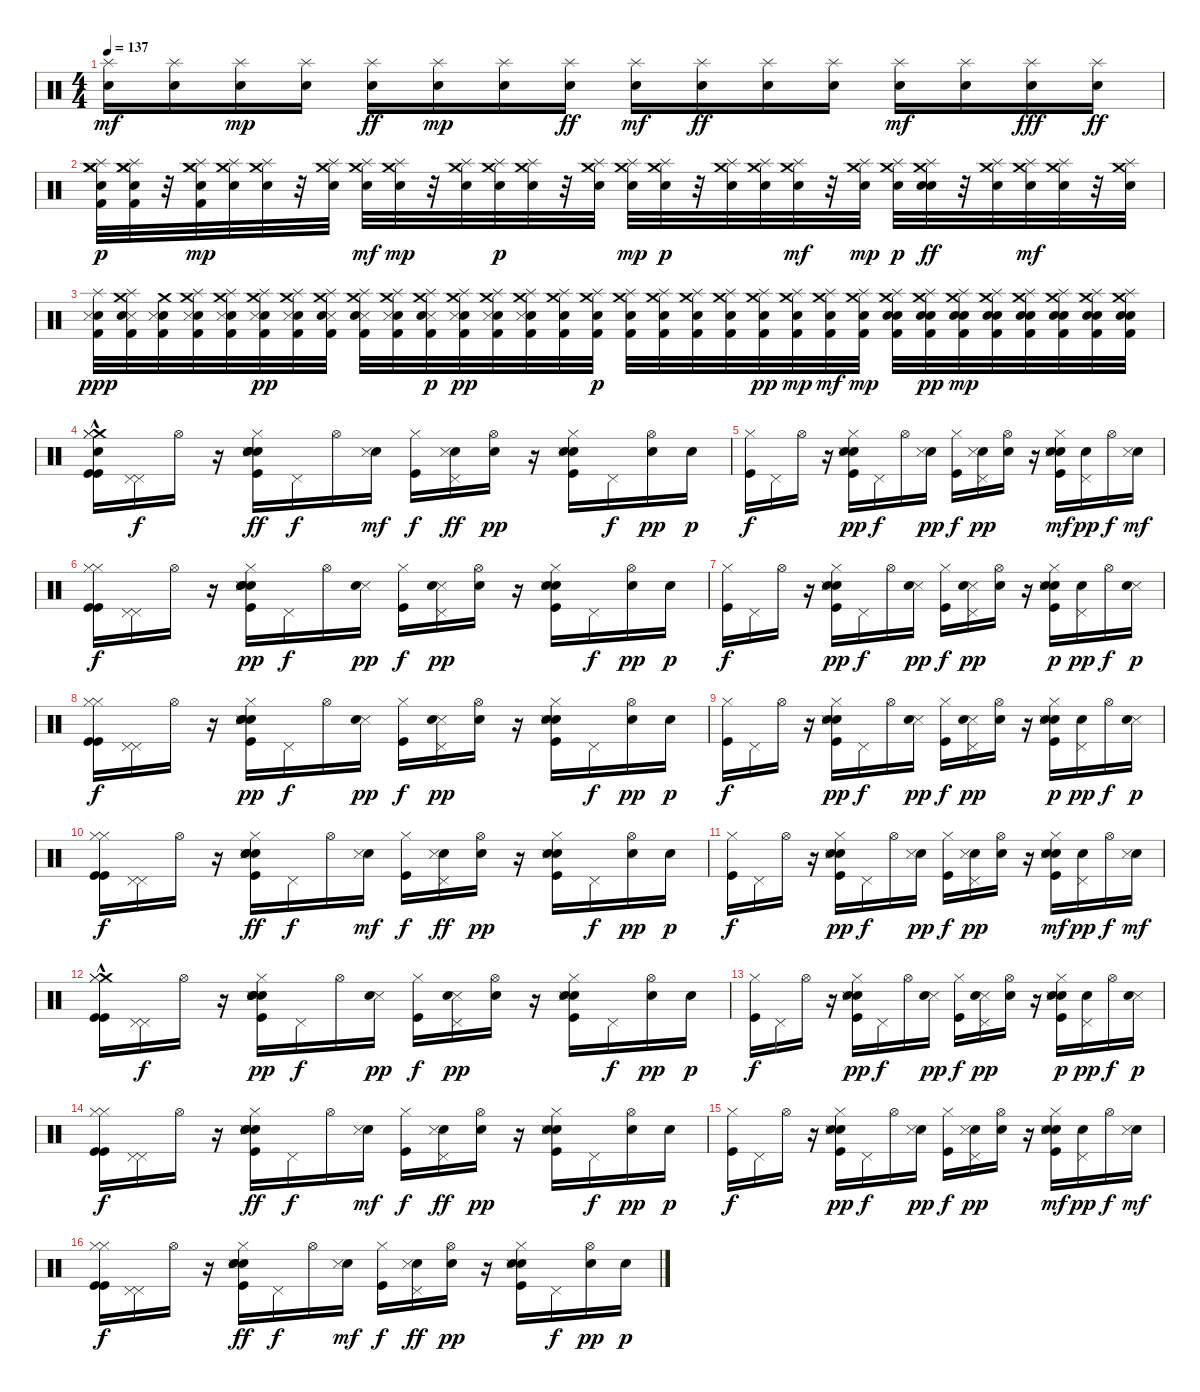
\track "" {instrument percussion}
\staff {score}
\articulation defaults
\ts (4 4)
\tempo 137
\clef neutral
\ks c
("Splash (hit)" "Snare (hit) 2").16{dy mf} ("Splash (hit)" "Snare (hit) 2").16 ("Splash (hit)" "Snare (hit) 2").16{dy mp} ("Snare (hit) 2" "Splash (hit)").16 ("Splash (hit)" "Snare (hit) 2").16{dy ff} ("Snare (hit) 2" "Splash (hit)").16{dy mp} ("Snare (hit) 2" "Splash (hit)").16 ("Splash (hit)" "Snare (hit) 2").16{dy ff} ("Splash (hit)" "Snare (hit) 2").16{dy mf} ("Splash (hit)" "Snare (hit) 2").16{dy ff} ("Splash (hit)" "Snare (hit) 2").16 ("Splash (hit)" "Snare (hit) 2").16 ("Snare (hit) 2" "Splash (hit)").16{dy mf} ("Snare (hit) 2" "Splash (hit)").16 ("Snare (hit) 2" "Splash (hit)").16{dy fff} ("Snare (hit) 2" "Splash (hit)").16{dy ff} |
("Kick (hit) 2" "Crash medium (hit)" "Snare (hit) 2" "Crash medium (hit)" "Splash (hit)").32{dy p} ("Crash medium (hit)" "Kick (hit) 2" "Crash medium (hit)" "Snare (hit) 2" "Splash (hit)").32 r.32 ("Kick (hit) 2" "Crash medium (hit)" "Snare (hit) 2" "Crash medium (hit)" "Splash (hit)").32{dy mp} ("Snare (hit) 2" "Crash medium (hit)" "Splash (hit)").32 ("Snare (hit) 2" "Crash medium (hit)" "Splash (hit)").32 r.32 ("Snare (hit) 2" "Crash medium (hit)" "Splash (hit)").32 ("Snare (hit) 2" "Crash medium (hit)" "Splash (hit)").32{dy mf} ("Snare (hit) 2" "Splash (hit)" "Crash medium (hit)").32{dy mp} r.32 ("Snare (hit) 2" "Splash (hit)" "Crash medium (hit)").32 ("Snare (hit) 2" "Splash (hit)" "Crash medium (hit)").32{dy p} ("Snare (hit) 2" "Splash (hit)" "Crash medium (hit)").32 r.32 ("Snare (hit) 2" "Splash (hit)" "Crash medium (hit)").32 ("Snare (hit) 2" "Splash (hit)" "Crash medium (hit)").32{dy mp} ("Snare (hit) 2" "Crash medium (hit)" "Splash (hit)").32{dy p} r.32 ("Snare (hit) 2" "Crash medium (hit)" "Splash (hit)").32 ("Snare (hit) 2" "Splash (hit)" "Crash medium (hit)").32 ("Snare (hit) 2" "Crash medium (hit)" "Splash (hit)").32{dy mf} r.32 ("Snare (hit) 2" "Splash (hit)" "Crash medium (hit)").32{dy mp} ("Snare (hit) 2" "Crash medium (hit)" "Splash (hit)").32{dy p} ("Crash medium (hit)" "Splash (hit)" "Snare (hit) 2" "Electric Snare (hit)").32{dy ff} r.32 ("Splash (hit)" "Crash medium (hit)" "Snare (hit) 2").32 ("Splash (hit)" "Snare (hit) 2" "Crash medium (hit)").32{dy mf} ("Snare (hit) 2" "Splash (hit)" "Crash medium (hit)").32 r.32 ("Snare (hit) 2" "Crash medium (hit)" "Splash (hit)").32 |
("Kick (hit) 2" "Snare (hit) 2" "Snare (side stick) 3" "Splash (hit)").32{dy ppp} ("Snare (side stick) 3" "Snare (hit) 2" "Kick (hit) 2" "Splash (hit)" "Crash medium (hit)").32 ("Snare (hit) 2" "Kick (hit) 2" "Snare (side stick) 3" "Crash medium (hit)").32 ("Snare (hit) 2" "Crash medium (hit)" "Kick (hit) 2" "Splash (hit)" "Snare (side stick) 3").32 ("Crash medium (hit)" "Splash (hit)" "Snare (hit) 2" "Kick (hit) 2" "Snare (side stick) 3").32 ("Crash medium (hit)" "Splash (hit)" "Snare (hit) 2" "Snare (side stick) 3" "Kick (hit) 2").32{dy pp} ("Crash medium (hit)" "Kick (hit) 2" "Snare (hit) 2" "Splash (hit)" "Snare (side stick) 3").32 ("Crash medium (hit)" "Snare (side stick) 3" "Kick (hit) 2" "Snare (hit) 2" "Splash (hit)").32 ("Crash medium (hit)" "Snare (side stick) 3" "Splash (hit)" "Snare (hit) 2" "Kick (hit) 2").32 ("Crash medium (hit)" "Splash (hit)" "Snare (hit) 2" "Snare (side stick) 3" "Kick (hit) 2").32 ("Snare (side stick) 3" "Crash medium (hit)" "Splash (hit)" "Kick (hit) 2" "Snare (hit) 2").32{dy p} ("Snare (hit) 2" "Snare (side stick) 3" "Kick (hit) 2" "Splash (hit)" "Crash medium (hit)").32{dy pp} ("Splash (hit)" "Snare (hit) 2" "Kick (hit) 2" "Snare (side stick) 3" "Crash medium (hit)").32 ("Snare (hit) 2" "Kick (hit) 2" "Snare (side stick) 3" "Splash (hit)" "Crash medium (hit)").32 ("Kick (hit) 2" "Snare (hit) 2" "Splash (hit)" "Crash medium (hit)").32 ("Snare (hit) 2" "Kick (hit) 2" "Splash (hit)" "Crash medium (hit)").32{dy p} ("Snare (hit) 2" "Kick (hit) 2" "Splash (hit)" "Crash medium (hit)").32 ("Snare (hit) 2" "Kick (hit) 2" "Splash (hit)" "Crash medium (hit)").32 ("Snare (hit) 2" "Kick (hit) 2" "Crash medium (hit)" "Splash (hit)").32 ("Snare (hit) 2" "Kick (hit) 2" "Splash (hit)" "Crash medium (hit)").32 ("Splash (hit)" "Snare (hit) 2" "Kick (hit) 2" "Crash medium (hit)").32{dy pp} ("Crash medium (hit)" "Splash (hit)" "Snare (hit) 2" "Kick (hit) 2").32{dy mp} ("Snare (hit) 2" "Splash (hit)" "Crash medium (hit)" "Kick (hit) 2").32{dy mf} ("Snare (hit) 2" "Kick (hit) 2" "Splash (hit)" "Crash medium (hit)").32{dy mp} ("Snare (hit) 2" "Kick (hit) 2" "Electric Snare (hit)" "Splash (hit)" "Crash medium (hit)").32 ("Snare (hit) 2" "Electric Snare (hit)" "Kick (hit) 2" "Splash (hit)" "Crash medium (hit)").32{dy pp} ("Splash (hit)" "Electric Snare (hit)" "Snare (hit) 2" "Crash medium (hit)" "Kick (hit) 2").32{dy mp} ("Electric Snare (hit)" "Snare (hit) 2" "Kick (hit) 2" "Splash (hit)" "Crash medium (hit)").32 ("Electric Snare (hit)" "Snare (hit) 2" "Kick (hit) 2" "Crash medium (hit)" "Splash (hit)").32 ("Electric Snare (hit)" "Snare (hit) 2" "Kick (hit) 2" "Splash (hit)" "Crash medium (hit)").32 ("Electric Snare (hit)" "Snare (hit) 2" "Kick (hit) 2" "Splash (hit)" "Crash medium (hit)").32 ("Electric Snare (hit)" "Snare (hit) 2" "Kick (hit) 2" "Splash (hit)" "Crash medium (hit)").32 |
("Electric Snare (hit)" "Crash medium (hit)"{hac} "Hi-Hat (closed)" "Kick (hit)" "Kick (hit)" "Hi-Hat (closed)").16{volume 13} ("Pedal Hi-Hat (hit)" "Pedal Hi-Hat (hit)").16{dy f} "Hi-Hat (open)".16 r.16 ("Hand Clap (hit)" "Kick (hit)" "Hi-Hat (closed)" "Metronome (bell)" "Metronome (bell)" "Snare (side stick) 3").16{dy ff} "Pedal Hi-Hat (hit)".16{dy f} "Hi-Hat (open)".16 ("Metronome (bell)" "Snare (side stick) 3").16{dy mf} ("Kick (hit)" "Hi-Hat (closed)").16{dy f} ("Pedal Hi-Hat (hit)" "Metronome (bell)" "Snare (side stick) 3").16{dy ff} ("Hi-Hat (open)" "Metronome (bell)").16{dy pp} r.16 ("Hand Clap (hit)" "Hi-Hat (closed)" "Kick (hit)" "Metronome (bell)" "Snare (side stick) 3").16 "Pedal Hi-Hat (hit)".16{dy f} ("Hi-Hat (open)" "Metronome (bell)").16{dy pp} "Metronome (bell)".16{dy p} |
("Hi-Hat (closed)" "Kick (hit)").16{dy f} "Pedal Hi-Hat (hit)".16 "Hi-Hat (open)".16 r.16 ("Hand Clap (hit)" "Kick (hit)" "Hi-Hat (closed)" "Metronome (bell)" "Snare (side stick) 3").16{dy pp} "Pedal Hi-Hat (hit)".16{dy f} "Hi-Hat (open)".16 ("Metronome (bell)" "Snare (side stick) 3").16{dy pp} ("Kick (hit)" "Hi-Hat (closed)").16{dy f} ("Pedal Hi-Hat (hit)" "Metronome (bell)" "Snare (side stick) 3").16{dy pp} ("Hi-Hat (open)" "Metronome (bell)").16 r.16 ("Hand Clap (hit)" "Hi-Hat (closed)" "Kick (hit)" "Metronome (bell)" "Snare (side stick) 3").16{dy mf} ("Pedal Hi-Hat (hit)" "Metronome (bell)").16{dy pp} "Hi-Hat (open)".16{dy f} ("Metronome (bell)" "Snare (side stick) 3").16{dy mf} |
("Hi-Hat (closed)" "Kick (hit)" "Kick (hit)" "Hi-Hat (closed)").16{dy f volume 13} ("Pedal Hi-Hat (hit)" "Pedal Hi-Hat (hit)").16 "Hi-Hat (open)".16 r.16 ("Hand Clap (hit)" "Kick (hit)" "Hi-Hat (closed)" "Snare (side stick) 3" "Metronome (bell)" "Metronome (bell)").16{dy pp} "Pedal Hi-Hat (hit)".16{dy f} "Hi-Hat (open)".16 ("Snare (side stick) 3" "Metronome (bell)").16{dy pp} ("Kick (hit)" "Hi-Hat (closed)").16{dy f} ("Pedal Hi-Hat (hit)" "Snare (side stick) 3" "Metronome (bell)").16{dy pp} ("Hi-Hat (open)" "Metronome (bell)").16 r.16 ("Hand Clap (hit)" "Hi-Hat (closed)" "Kick (hit)" "Snare (side stick) 3" "Metronome (bell)").16 "Pedal Hi-Hat (hit)".16{dy f} ("Hi-Hat (open)" "Metronome (bell)").16{dy pp} "Metronome (bell)".16{dy p} |
("Hi-Hat (closed)" "Kick (hit)").16{dy f} "Pedal Hi-Hat (hit)".16 "Hi-Hat (open)".16 r.16 ("Hand Clap (hit)" "Kick (hit)" "Hi-Hat (closed)" "Snare (side stick) 3" "Metronome (bell)").16{dy pp} "Pedal Hi-Hat (hit)".16{dy f} "Hi-Hat (open)".16 ("Snare (side stick) 3" "Metronome (bell)").16{dy pp} ("Kick (hit)" "Hi-Hat (closed)").16{dy f} ("Pedal Hi-Hat (hit)" "Snare (side stick) 3" "Metronome (bell)").16{dy pp} ("Hi-Hat (open)" "Metronome (bell)").16 r.16 ("Hand Clap (hit)" "Hi-Hat (closed)" "Kick (hit)" "Snare (side stick) 3" "Metronome (bell)").16{dy p} ("Pedal Hi-Hat (hit)" "Metronome (bell)").16{dy pp} "Hi-Hat (open)".16{dy f} ("Snare (side stick) 3" "Metronome (bell)").16{dy p} |
("Hi-Hat (closed)" "Kick (hit)" "Kick (hit)" "Hi-Hat (closed)").16{dy f volume 13} ("Pedal Hi-Hat (hit)" "Pedal Hi-Hat (hit)").16 "Hi-Hat (open)".16 r.16 ("Hand Clap (hit)" "Kick (hit)" "Hi-Hat (closed)" "Snare (side stick) 3" "Metronome (bell)" "Metronome (bell)").16{dy pp} "Pedal Hi-Hat (hit)".16{dy f} "Hi-Hat (open)".16 ("Snare (side stick) 3" "Metronome (bell)").16{dy pp} ("Kick (hit)" "Hi-Hat (closed)").16{dy f} ("Pedal Hi-Hat (hit)" "Snare (side stick) 3" "Metronome (bell)").16{dy pp} ("Hi-Hat (open)" "Metronome (bell)").16 r.16 ("Hand Clap (hit)" "Hi-Hat (closed)" "Kick (hit)" "Snare (side stick) 3" "Metronome (bell)").16 "Pedal Hi-Hat (hit)".16{dy f} ("Hi-Hat (open)" "Metronome (bell)").16{dy pp} "Metronome (bell)".16{dy p} |
("Hi-Hat (closed)" "Kick (hit)").16{dy f} "Pedal Hi-Hat (hit)".16 "Hi-Hat (open)".16 r.16 ("Hand Clap (hit)" "Kick (hit)" "Hi-Hat (closed)" "Snare (side stick) 3" "Metronome (bell)").16{dy pp} "Pedal Hi-Hat (hit)".16{dy f} "Hi-Hat (open)".16 ("Snare (side stick) 3" "Metronome (bell)").16{dy pp} ("Kick (hit)" "Hi-Hat (closed)").16{dy f} ("Pedal Hi-Hat (hit)" "Snare (side stick) 3" "Metronome (bell)").16{dy pp} ("Hi-Hat (open)" "Metronome (bell)").16 r.16 ("Hand Clap (hit)" "Hi-Hat (closed)" "Kick (hit)" "Snare (side stick) 3" "Metronome (bell)").16{dy p} ("Pedal Hi-Hat (hit)" "Metronome (bell)").16{dy pp} "Hi-Hat (open)".16{dy f} ("Snare (side stick) 3" "Metronome (bell)").16{dy p} |
("Hi-Hat (closed)" "Kick (hit)" "Kick (hit)" "Hi-Hat (closed)").16{dy f volume 13} ("Pedal Hi-Hat (hit)" "Pedal Hi-Hat (hit)").16 "Hi-Hat (open)".16 r.16 ("Hand Clap (hit)" "Kick (hit)" "Hi-Hat (closed)" "Metronome (bell)" "Metronome (bell)" "Snare (side stick) 3").16{dy ff} "Pedal Hi-Hat (hit)".16{dy f} "Hi-Hat (open)".16 ("Metronome (bell)" "Snare (side stick) 3").16{dy mf} ("Kick (hit)" "Hi-Hat (closed)").16{dy f} ("Pedal Hi-Hat (hit)" "Metronome (bell)" "Snare (side stick) 3").16{dy ff} ("Hi-Hat (open)" "Metronome (bell)").16{dy pp} r.16 ("Hand Clap (hit)" "Hi-Hat (closed)" "Kick (hit)" "Metronome (bell)" "Snare (side stick) 3").16 "Pedal Hi-Hat (hit)".16{dy f} ("Hi-Hat (open)" "Metronome (bell)").16{dy pp} "Metronome (bell)".16{dy p} |
("Hi-Hat (closed)" "Kick (hit)").16{dy f} "Pedal Hi-Hat (hit)".16 "Hi-Hat (open)".16 r.16 ("Hand Clap (hit)" "Kick (hit)" "Hi-Hat (closed)" "Metronome (bell)" "Snare (side stick) 3").16{dy pp} "Pedal Hi-Hat (hit)".16{dy f} "Hi-Hat (open)".16 ("Metronome (bell)" "Snare (side stick) 3").16{dy pp} ("Kick (hit)" "Hi-Hat (closed)").16{dy f} ("Pedal Hi-Hat (hit)" "Metronome (bell)" "Snare (side stick) 3").16{dy pp} ("Hi-Hat (open)" "Metronome (bell)").16 r.16 ("Hand Clap (hit)" "Hi-Hat (closed)" "Kick (hit)" "Metronome (bell)" "Snare (side stick) 3").16{dy mf} ("Pedal Hi-Hat (hit)" "Metronome (bell)").16{dy pp} "Hi-Hat (open)".16{dy f} ("Metronome (bell)" "Snare (side stick) 3").16{dy mf} |
("Crash medium (hit)"{hac} "Hi-Hat (closed)" "Kick (hit)" "Kick (hit)" "Hi-Hat (closed)").16{volume 13} ("Pedal Hi-Hat (hit)" "Pedal Hi-Hat (hit)").16{dy f} "Hi-Hat (open)".16 r.16 ("Hand Clap (hit)" "Kick (hit)" "Hi-Hat (closed)" "Snare (side stick) 3" "Metronome (bell)" "Metronome (bell)").16{dy pp} "Pedal Hi-Hat (hit)".16{dy f} "Hi-Hat (open)".16 ("Snare (side stick) 3" "Metronome (bell)").16{dy pp} ("Kick (hit)" "Hi-Hat (closed)").16{dy f} ("Pedal Hi-Hat (hit)" "Snare (side stick) 3" "Metronome (bell)").16{dy pp} ("Hi-Hat (open)" "Metronome (bell)").16 r.16 ("Hand Clap (hit)" "Hi-Hat (closed)" "Kick (hit)" "Snare (side stick) 3" "Metronome (bell)").16 "Pedal Hi-Hat (hit)".16{dy f} ("Hi-Hat (open)" "Metronome (bell)").16{dy pp} "Metronome (bell)".16{dy p} |
("Hi-Hat (closed)" "Kick (hit)").16{dy f} "Pedal Hi-Hat (hit)".16 "Hi-Hat (open)".16 r.16 ("Hand Clap (hit)" "Kick (hit)" "Hi-Hat (closed)" "Snare (side stick) 3" "Metronome (bell)").16{dy pp} "Pedal Hi-Hat (hit)".16{dy f} "Hi-Hat (open)".16 ("Snare (side stick) 3" "Metronome (bell)").16{dy pp} ("Kick (hit)" "Hi-Hat (closed)").16{dy f} ("Pedal Hi-Hat (hit)" "Snare (side stick) 3" "Metronome (bell)").16{dy pp} ("Hi-Hat (open)" "Metronome (bell)").16 r.16 ("Hand Clap (hit)" "Hi-Hat (closed)" "Kick (hit)" "Snare (side stick) 3" "Metronome (bell)").16{dy p} ("Pedal Hi-Hat (hit)" "Metronome (bell)").16{dy pp} "Hi-Hat (open)".16{dy f} ("Snare (side stick) 3" "Metronome (bell)").16{dy p} |
("Hi-Hat (closed)" "Kick (hit)" "Kick (hit)" "Hi-Hat (closed)").16{dy f volume 13} ("Pedal Hi-Hat (hit)" "Pedal Hi-Hat (hit)").16 "Hi-Hat (open)".16 r.16 ("Hand Clap (hit)" "Kick (hit)" "Hi-Hat (closed)" "Metronome (bell)" "Metronome (bell)" "Snare (side stick) 3").16{dy ff} "Pedal Hi-Hat (hit)".16{dy f} "Hi-Hat (open)".16 ("Metronome (bell)" "Snare (side stick) 3").16{dy mf} ("Kick (hit)" "Hi-Hat (closed)").16{dy f} ("Pedal Hi-Hat (hit)" "Metronome (bell)" "Snare (side stick) 3").16{dy ff} ("Hi-Hat (open)" "Metronome (bell)").16{dy pp} r.16 ("Hand Clap (hit)" "Hi-Hat (closed)" "Kick (hit)" "Metronome (bell)" "Snare (side stick) 3").16 "Pedal Hi-Hat (hit)".16{dy f} ("Hi-Hat (open)" "Metronome (bell)").16{dy pp} "Metronome (bell)".16{dy p} |
("Hi-Hat (closed)" "Kick (hit)").16{dy f} "Pedal Hi-Hat (hit)".16 "Hi-Hat (open)".16 r.16 ("Hand Clap (hit)" "Kick (hit)" "Hi-Hat (closed)" "Metronome (bell)" "Snare (side stick) 3").16{dy pp} "Pedal Hi-Hat (hit)".16{dy f} "Hi-Hat (open)".16 ("Metronome (bell)" "Snare (side stick) 3").16{dy pp} ("Kick (hit)" "Hi-Hat (closed)").16{dy f} ("Pedal Hi-Hat (hit)" "Metronome (bell)" "Snare (side stick) 3").16{dy pp} ("Hi-Hat (open)" "Metronome (bell)").16 r.16 ("Hand Clap (hit)" "Hi-Hat (closed)" "Kick (hit)" "Metronome (bell)" "Snare (side stick) 3").16{dy mf} ("Pedal Hi-Hat (hit)" "Metronome (bell)").16{dy pp} "Hi-Hat (open)".16{dy f} ("Metronome (bell)" "Snare (side stick) 3").16{dy mf} |
("Hi-Hat (closed)" "Kick (hit)" "Kick (hit)" "Hi-Hat (closed)").16{dy f volume 13} ("Pedal Hi-Hat (hit)" "Pedal Hi-Hat (hit)").16 "Hi-Hat (open)".16 r.16 ("Hand Clap (hit)" "Kick (hit)" "Hi-Hat (closed)" "Metronome (bell)" "Metronome (bell)" "Snare (side stick) 3").16{dy ff} "Pedal Hi-Hat (hit)".16{dy f} "Hi-Hat (open)".16 ("Metronome (bell)" "Snare (side stick) 3").16{dy mf} ("Kick (hit)" "Hi-Hat (closed)").16{dy f} ("Pedal Hi-Hat (hit)" "Metronome (bell)" "Snare (side stick) 3").16{dy ff} ("Hi-Hat (open)" "Metronome (bell)").16{dy pp} r.16 ("Hand Clap (hit)" "Hi-Hat (closed)" "Kick (hit)" "Metronome (bell)" "Snare (side stick) 3").16 "Pedal Hi-Hat (hit)".16{dy f} ("Hi-Hat (open)" "Metronome (bell)").16{dy pp} "Metronome (bell)".16{dy p}
